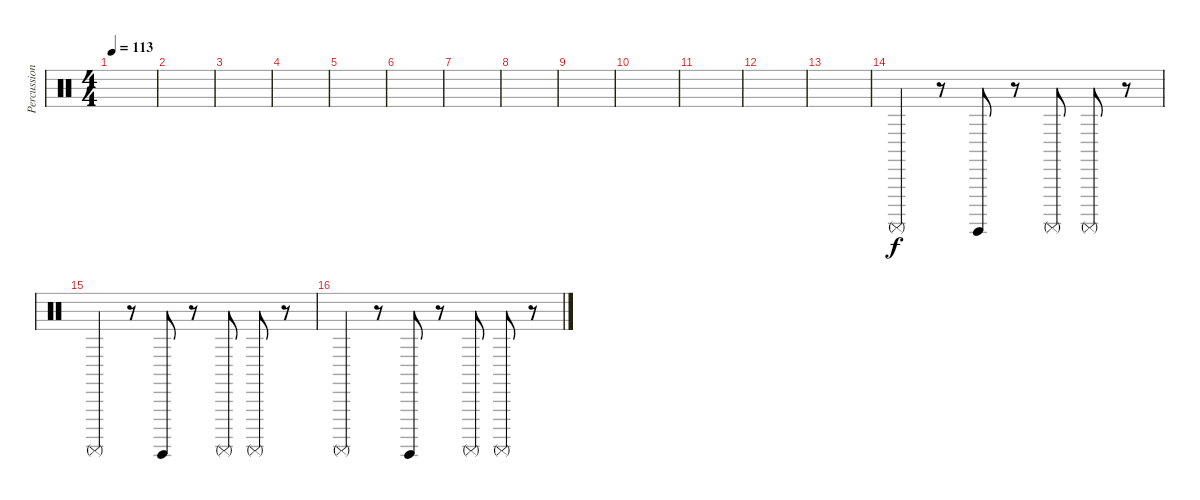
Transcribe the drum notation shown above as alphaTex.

\track ("Percussion" "Percussion") {instrument percussion}
\staff {score}
\articulation defaults
\ts (4 4)
\tempo 113
\clef neutral
\ks c
|
|
|
|
|
|
|
|
|
|
|
|
|
"Surdo (mute)".4 r.8 "Surdo (hit)".8 r.8 "Surdo (mute)".8 "Surdo (mute)".8 r.8 |
"Surdo (mute)".4 r.8 "Surdo (hit)".8 r.8 "Surdo (mute)".8 "Surdo (mute)".8 r.8 |
"Surdo (mute)".4 r.8 "Surdo (hit)".8 r.8 "Surdo (mute)".8 "Surdo (mute)".8 r.8
